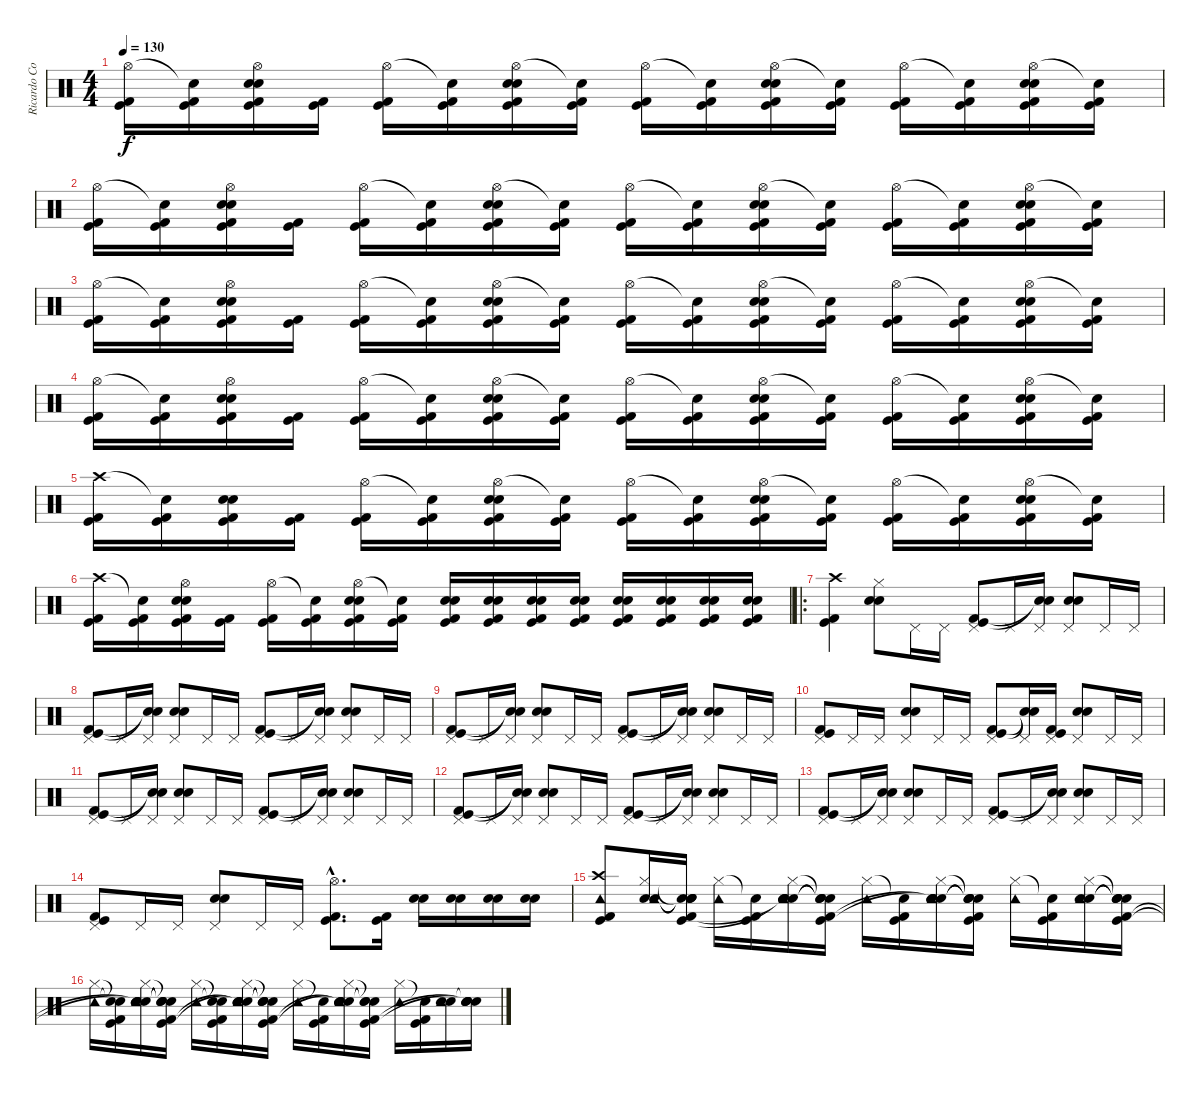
\track ("Ricardo Confessori" "Ricardo Co") {instrument percussion}
\staff {score}
\articulation defaults
\ts (4 4)
\tempo 130
\clef neutral
\ks c
("Hi-Hat (open)" "Kick (hit)" "Kick (hit) 2").16{dy f} ("Snare (hit)"{t} "Kick (hit)" "Kick (hit) 2").16 ("Hi-Hat (open)" "Electric Snare (hit)" "Snare (hit) 2" "Kick (hit)" "Kick (hit) 2").16 ("Kick (hit)" "Kick (hit) 2").16 ("Hi-Hat (open)" "Kick (hit)" "Kick (hit) 2").16 ("Snare (hit)"{t} "Kick (hit)" "Kick (hit) 2").16 ("Hi-Hat (open)" "Electric Snare (hit)" "Snare (hit) 2" "Kick (hit)" "Kick (hit) 2").16 ("Snare (hit)"{t} "Kick (hit)" "Kick (hit) 2").16 ("Hi-Hat (open)" "Kick (hit)" "Kick (hit) 2").16 ("Snare (hit)"{t} "Kick (hit)" "Kick (hit) 2").16 ("Hi-Hat (open)" "Electric Snare (hit)" "Snare (hit) 2" "Kick (hit)" "Kick (hit) 2").16 ("Snare (hit)"{t} "Kick (hit)" "Kick (hit) 2").16 ("Hi-Hat (open)" "Kick (hit)" "Kick (hit) 2").16 ("Snare (hit)"{t} "Kick (hit)" "Kick (hit) 2").16 ("Hi-Hat (open)" "Electric Snare (hit)" "Snare (hit) 2" "Kick (hit)" "Kick (hit) 2").16 ("Snare (hit)"{t} "Kick (hit)" "Kick (hit) 2").16 |
("Hi-Hat (open)" "Kick (hit)" "Kick (hit) 2").16 ("Snare (hit)"{t} "Kick (hit)" "Kick (hit) 2").16 ("Hi-Hat (open)" "Electric Snare (hit)" "Snare (hit) 2" "Kick (hit)" "Kick (hit) 2").16 ("Kick (hit)" "Kick (hit) 2").16 ("Hi-Hat (open)" "Kick (hit)" "Kick (hit) 2").16 ("Snare (hit)"{t} "Kick (hit)" "Kick (hit) 2").16 ("Hi-Hat (open)" "Electric Snare (hit)" "Snare (hit) 2" "Kick (hit)" "Kick (hit) 2").16 ("Snare (hit)"{t} "Kick (hit)" "Kick (hit) 2").16 ("Hi-Hat (open)" "Kick (hit)" "Kick (hit) 2").16 ("Snare (hit)"{t} "Kick (hit)" "Kick (hit) 2").16 ("Hi-Hat (open)" "Electric Snare (hit)" "Snare (hit) 2" "Kick (hit)" "Kick (hit) 2").16 ("Snare (hit)"{t} "Kick (hit)" "Kick (hit) 2").16 ("Hi-Hat (open)" "Kick (hit)" "Kick (hit) 2").16 ("Snare (hit)"{t} "Kick (hit)" "Kick (hit) 2").16 ("Hi-Hat (open)" "Electric Snare (hit)" "Snare (hit) 2" "Kick (hit)" "Kick (hit) 2").16 ("Snare (hit)"{t} "Kick (hit)" "Kick (hit) 2").16 |
("Hi-Hat (open)" "Kick (hit)" "Kick (hit) 2").16 ("Snare (hit)"{t} "Kick (hit)" "Kick (hit) 2").16 ("Hi-Hat (open)" "Electric Snare (hit)" "Snare (hit) 2" "Kick (hit)" "Kick (hit) 2").16 ("Kick (hit)" "Kick (hit) 2").16 ("Hi-Hat (open)" "Kick (hit)" "Kick (hit) 2").16 ("Snare (hit)"{t} "Kick (hit)" "Kick (hit) 2").16 ("Hi-Hat (open)" "Electric Snare (hit)" "Snare (hit) 2" "Kick (hit)" "Kick (hit) 2").16 ("Snare (hit)"{t} "Kick (hit)" "Kick (hit) 2").16 ("Hi-Hat (open)" "Kick (hit)" "Kick (hit) 2").16 ("Snare (hit)"{t} "Kick (hit)" "Kick (hit) 2").16 ("Hi-Hat (open)" "Electric Snare (hit)" "Snare (hit) 2" "Kick (hit)" "Kick (hit) 2").16 ("Snare (hit)"{t} "Kick (hit)" "Kick (hit) 2").16 ("Hi-Hat (open)" "Kick (hit)" "Kick (hit) 2").16 ("Snare (hit)"{t} "Kick (hit)" "Kick (hit) 2").16 ("Hi-Hat (open)" "Electric Snare (hit)" "Snare (hit) 2" "Kick (hit)" "Kick (hit) 2").16 ("Snare (hit)"{t} "Kick (hit)" "Kick (hit) 2").16 |
("Hi-Hat (open)" "Kick (hit)" "Kick (hit) 2").16 ("Snare (hit)"{t} "Kick (hit)" "Kick (hit) 2").16 ("Hi-Hat (open)" "Electric Snare (hit)" "Snare (hit) 2" "Kick (hit)" "Kick (hit) 2").16 ("Kick (hit)" "Kick (hit) 2").16 ("Hi-Hat (open)" "Kick (hit)" "Kick (hit) 2").16 ("Snare (hit)"{t} "Kick (hit)" "Kick (hit) 2").16 ("Hi-Hat (open)" "Electric Snare (hit)" "Snare (hit) 2" "Kick (hit)" "Kick (hit) 2").16 ("Snare (hit)"{t} "Kick (hit)" "Kick (hit) 2").16 ("Hi-Hat (open)" "Kick (hit)" "Kick (hit) 2").16 ("Snare (hit)"{t} "Kick (hit)" "Kick (hit) 2").16 ("Hi-Hat (open)" "Electric Snare (hit)" "Snare (hit) 2" "Kick (hit)" "Kick (hit) 2").16 ("Snare (hit)"{t} "Kick (hit)" "Kick (hit) 2").16 ("Hi-Hat (open)" "Kick (hit)" "Kick (hit) 2").16 ("Snare (hit)"{t} "Kick (hit)" "Kick (hit) 2").16 ("Hi-Hat (open)" "Electric Snare (hit)" "Snare (hit) 2" "Kick (hit)" "Kick (hit) 2").16 ("Snare (hit)"{t} "Kick (hit)" "Kick (hit) 2").16 |
("Crash high (hit)" "Kick (hit)" "Kick (hit) 2").16 ("Snare (hit)"{t} "Kick (hit)" "Kick (hit) 2").16 ("Electric Snare (hit)" "Snare (hit) 2" "Kick (hit)" "Kick (hit) 2").16 ("Kick (hit)" "Kick (hit) 2").16 ("Hi-Hat (open)" "Kick (hit)" "Kick (hit) 2").16 ("Snare (hit)"{t} "Kick (hit)" "Kick (hit) 2").16 ("Hi-Hat (open)" "Electric Snare (hit)" "Snare (hit) 2" "Kick (hit)" "Kick (hit) 2").16 ("Snare (hit)"{t} "Kick (hit)" "Kick (hit) 2").16 ("Hi-Hat (open)" "Kick (hit)" "Kick (hit) 2").16 ("Snare (hit)"{t} "Kick (hit)" "Kick (hit) 2").16 ("Hi-Hat (open)" "Electric Snare (hit)" "Snare (hit) 2" "Kick (hit)" "Kick (hit) 2").16 ("Snare (hit)"{t} "Kick (hit)" "Kick (hit) 2").16 ("Hi-Hat (open)" "Kick (hit)" "Kick (hit) 2").16 ("Snare (hit)"{t} "Kick (hit)" "Kick (hit) 2").16 ("Hi-Hat (open)" "Electric Snare (hit)" "Snare (hit) 2" "Kick (hit)" "Kick (hit) 2").16 ("Snare (hit)"{t} "Kick (hit)" "Kick (hit) 2").16 |
("Crash high (hit)" "Kick (hit)" "Kick (hit) 2").16 ("Snare (hit)"{t} "Kick (hit)" "Kick (hit) 2").16 ("Hi-Hat (open)" "Electric Snare (hit)" "Snare (hit) 2" "Kick (hit)" "Kick (hit) 2").16 ("Kick (hit)" "Kick (hit) 2").16 ("Hi-Hat (open)" "Kick (hit)" "Kick (hit) 2").16 ("Snare (hit)"{t} "Kick (hit)" "Kick (hit) 2").16 ("Hi-Hat (open)" "Electric Snare (hit)" "Snare (hit) 2" "Kick (hit)" "Kick (hit) 2").16 ("Snare (hit)"{t} "Kick (hit)" "Kick (hit) 2").16 ("Electric Snare (hit)" "Snare (hit) 2" "Kick (hit)" "Kick (hit) 2").16 ("Electric Snare (hit)" "Snare (hit) 2" "Kick (hit)" "Kick (hit) 2").16 ("Electric Snare (hit)" "Snare (hit) 2" "Kick (hit)" "Kick (hit) 2").16 ("Electric Snare (hit)" "Snare (hit) 2" "Kick (hit)" "Kick (hit) 2").16 ("Electric Snare (hit)" "Snare (hit) 2" "Kick (hit)" "Kick (hit) 2").16 ("Electric Snare (hit)" "Snare (hit) 2" "Kick (hit)" "Kick (hit) 2").16 ("Electric Snare (hit)" "Snare (hit) 2" "Kick (hit)" "Kick (hit) 2").16 ("Electric Snare (hit)" "Snare (hit) 2" "Kick (hit)" "Kick (hit) 2").16 |
\ro
("Crash high (hit)" "Kick (hit) 2" "Kick (hit)").4 ("Hi-Hat (closed)" "Electric Snare (hit)" "Snare (hit) 2").8 "Pedal Hi-Hat (hit)".16 "Pedal Hi-Hat (hit)".16 ("Pedal Hi-Hat (hit)" "Kick (hit)" "Kick (hit) 2").8 "Pedal Hi-Hat (hit)".16 ("Pedal Hi-Hat (hit)" "Snare (hit)"{t} "Snare (hit)"{t}).16 ("Pedal Hi-Hat (hit)" "Electric Snare (hit)" "Snare (hit) 2").8 "Pedal Hi-Hat (hit)".16 "Pedal Hi-Hat (hit)".16 |
("Pedal Hi-Hat (hit)" "Kick (hit)" "Kick (hit) 2").8 "Pedal Hi-Hat (hit)".16 ("Pedal Hi-Hat (hit)" "Snare (hit)"{t} "Snare (hit)"{t}).16 ("Pedal Hi-Hat (hit)" "Electric Snare (hit)" "Snare (hit) 2").8 "Pedal Hi-Hat (hit)".16 "Pedal Hi-Hat (hit)".16 ("Pedal Hi-Hat (hit)" "Kick (hit)" "Kick (hit) 2").8 "Pedal Hi-Hat (hit)".16 ("Pedal Hi-Hat (hit)" "Snare (hit)"{t} "Snare (hit)"{t}).16 ("Pedal Hi-Hat (hit)" "Electric Snare (hit)" "Snare (hit) 2").8 "Pedal Hi-Hat (hit)".16 "Pedal Hi-Hat (hit)".16 |
("Pedal Hi-Hat (hit)" "Kick (hit)" "Kick (hit) 2").8 "Pedal Hi-Hat (hit)".16 ("Pedal Hi-Hat (hit)" "Snare (hit)"{t} "Snare (hit)"{t}).16 ("Pedal Hi-Hat (hit)" "Electric Snare (hit)" "Snare (hit) 2").8 "Pedal Hi-Hat (hit)".16 "Pedal Hi-Hat (hit)".16 ("Pedal Hi-Hat (hit)" "Kick (hit)" "Kick (hit) 2").8 "Pedal Hi-Hat (hit)".16 ("Pedal Hi-Hat (hit)" "Snare (hit)"{t} "Snare (hit)"{t}).16 ("Pedal Hi-Hat (hit)" "Electric Snare (hit)" "Snare (hit) 2").8 "Pedal Hi-Hat (hit)".16 "Pedal Hi-Hat (hit)".16 |
("Pedal Hi-Hat (hit)" "Kick (hit) 2" "Kick (hit)").8 "Pedal Hi-Hat (hit)".16 "Pedal Hi-Hat (hit)".16 ("Pedal Hi-Hat (hit)" "Electric Snare (hit)" "Snare (hit) 2").8 "Pedal Hi-Hat (hit)".16 "Pedal Hi-Hat (hit)".16 ("Pedal Hi-Hat (hit)" "Kick (hit) 2" "Kick (hit)").8 ("Pedal Hi-Hat (hit)" "Snare (hit)"{t} "Snare (hit)"{t}).16 ("Pedal Hi-Hat (hit)" "Kick (hit) 2" "Kick (hit)").16 ("Pedal Hi-Hat (hit)" "Electric Snare (hit)" "Snare (hit) 2").8 "Pedal Hi-Hat (hit)".16 "Pedal Hi-Hat (hit)".16 |
("Pedal Hi-Hat (hit)" "Kick (hit)" "Kick (hit) 2").8 "Pedal Hi-Hat (hit)".16 ("Pedal Hi-Hat (hit)" "Snare (hit)"{t} "Snare (hit)"{t}).16 ("Pedal Hi-Hat (hit)" "Electric Snare (hit)" "Snare (hit) 2").8 "Pedal Hi-Hat (hit)".16 "Pedal Hi-Hat (hit)".16 ("Pedal Hi-Hat (hit)" "Kick (hit)" "Kick (hit) 2").8 "Pedal Hi-Hat (hit)".16 ("Pedal Hi-Hat (hit)" "Snare (hit)"{t} "Snare (hit)"{t}).16 ("Pedal Hi-Hat (hit)" "Electric Snare (hit)" "Snare (hit) 2").8 "Pedal Hi-Hat (hit)".16 "Pedal Hi-Hat (hit)".16 |
("Pedal Hi-Hat (hit)" "Kick (hit)" "Kick (hit) 2").8 "Pedal Hi-Hat (hit)".16 ("Pedal Hi-Hat (hit)" "Snare (hit)"{t} "Snare (hit)"{t}).16 ("Pedal Hi-Hat (hit)" "Electric Snare (hit)" "Snare (hit) 2").8 "Pedal Hi-Hat (hit)".16 "Pedal Hi-Hat (hit)".16 ("Pedal Hi-Hat (hit)" "Kick (hit)" "Kick (hit) 2").8 "Pedal Hi-Hat (hit)".16 ("Pedal Hi-Hat (hit)" "Snare (hit)"{t} "Snare (hit)"{t}).16 ("Pedal Hi-Hat (hit)" "Electric Snare (hit)" "Snare (hit) 2").8 "Pedal Hi-Hat (hit)".16 "Pedal Hi-Hat (hit)".16 |
("Pedal Hi-Hat (hit)" "Kick (hit)" "Kick (hit) 2").8 "Pedal Hi-Hat (hit)".16 ("Pedal Hi-Hat (hit)" "Snare (hit)"{t} "Snare (hit)"{t}).16 ("Pedal Hi-Hat (hit)" "Electric Snare (hit)" "Snare (hit) 2").8 "Pedal Hi-Hat (hit)".16 "Pedal Hi-Hat (hit)".16 ("Pedal Hi-Hat (hit)" "Kick (hit)" "Kick (hit) 2").8 "Pedal Hi-Hat (hit)".16 ("Pedal Hi-Hat (hit)" "Snare (hit)"{t} "Snare (hit)"{t}).16 ("Pedal Hi-Hat (hit)" "Electric Snare (hit)" "Snare (hit) 2").8 "Pedal Hi-Hat (hit)".16 "Pedal Hi-Hat (hit)".16 |
("Pedal Hi-Hat (hit)" "Kick (hit)" "Kick (hit) 2").8 "Pedal Hi-Hat (hit)".16 "Pedal Hi-Hat (hit)".16 ("Pedal Hi-Hat (hit)" "Electric Snare (hit)" "Snare (hit) 2").8 "Pedal Hi-Hat (hit)".16 "Pedal Hi-Hat (hit)".16 ("Hi-Hat (open)"{hac} "Kick (hit)"{hac} "Kick (hit) 2"{hac}).8{d} ("Kick (hit) 2" "Kick (hit)").16 ("Electric Snare (hit)" "Snare (hit) 2").16 ("Electric Snare (hit)" "Snare (hit) 2").16 ("Electric Snare (hit)" "Snare (hit) 2").16 ("Electric Snare (hit)" "Snare (hit) 2").16 |
("Crash high (hit)" "Tambourine (hit)" "Kick (hit) 2" "Kick (hit)").8 ("Hi-Hat (closed)" "Electric Snare (hit)" "Snare (hit) 2" "Tambourine (hit)").16 ("Snare (hit)"{t} "Snare (hit)"{t} "Snare (hit)"{t} "Snare (hit)"{t} "Kick (hit) 2" "Kick (hit)").16 ("Hi-Hat (closed)" "Tambourine (hit)").16 ("Snare (hit)"{t} "Kick (hit) 2" "Kick (hit)").16 ("Hi-Hat (closed)" "Electric Snare (hit)" "Snare (hit) 2" "Tambourine (hit)" "Snare (hit)"{t} "Snare (hit)"{t}).16 ("Snare (hit)"{t} "Snare (hit)"{t} "Snare (hit)"{t} "Snare (hit)"{t} "Kick (hit)" "Kick (hit) 2").16 ("Hi-Hat (closed)" "Tambourine (hit)").16 ("Snare (hit)"{t} "Kick (hit)" "Kick (hit) 2").16 ("Hi-Hat (closed)" "Electric Snare (hit)" "Snare (hit) 2" "Tambourine (hit)" "Snare (hit)"{t} "Snare (hit)"{t}).16 ("Snare (hit)"{t} "Snare (hit)"{t} "Snare (hit)"{t} "Snare (hit)"{t} "Kick (hit)" "Kick (hit) 2").16 ("Hi-Hat (closed)" "Tambourine (hit)").16 ("Snare (hit)"{t} "Kick (hit)" "Kick (hit) 2").16 ("Hi-Hat (closed)" "Electric Snare (hit)" "Snare (hit) 2" "Tambourine (hit)").16 ("Snare (hit)"{t} "Snare (hit)"{t} "Snare (hit)"{t} "Snare (hit)"{t} "Kick (hit)" "Kick (hit) 2").16 |
("Hi-Hat (closed)" "Tambourine (hit)").16 ("Snare (hit)"{t} "Snare (hit)"{t} "Kick (hit)" "Kick (hit) 2").16 ("Hi-Hat (closed)" "Electric Snare (hit)" "Snare (hit) 2" "Tambourine (hit)" "Snare (hit)"{t} "Snare (hit)"{t}).16 ("Snare (hit)"{t} "Snare (hit)"{t} "Snare (hit)"{t} "Snare (hit)"{t} "Kick (hit)" "Kick (hit) 2").16 ("Hi-Hat (closed)" "Tambourine (hit)").16 ("Snare (hit)"{t} "Snare (hit)"{t} "Kick (hit)" "Kick (hit) 2").16 ("Hi-Hat (closed)" "Electric Snare (hit)" "Snare (hit) 2" "Tambourine (hit)" "Snare (hit)"{t} "Snare (hit)"{t}).16 ("Snare (hit)"{t} "Snare (hit)"{t} "Snare (hit)"{t} "Snare (hit)"{t} "Kick (hit)" "Kick (hit) 2").16 ("Hi-Hat (closed)" "Tambourine (hit)").16 ("Snare (hit)"{t} "Kick (hit)" "Kick (hit) 2").16 ("Hi-Hat (closed)" "Electric Snare (hit)" "Snare (hit) 2" "Tambourine (hit)" "Snare (hit)"{t} "Snare (hit)"{t}).16 ("Snare (hit)"{t} "Snare (hit)"{t} "Snare (hit)"{t} "Kick (hit)" "Kick (hit) 2").16 ("Hi-Hat (closed)" "Tambourine (hit)").16 ("Snare (hit)"{t} "Kick (hit)" "Kick (hit) 2").16 ("Electric Snare (hit)" "Snare (hit) 2" "Tambourine (hit)").16 ("Electric Snare (hit)" "Snare (hit) 2" "Snare (hit)"{t} "Snare (hit)"{t} "Snare (hit)"{t}).16
